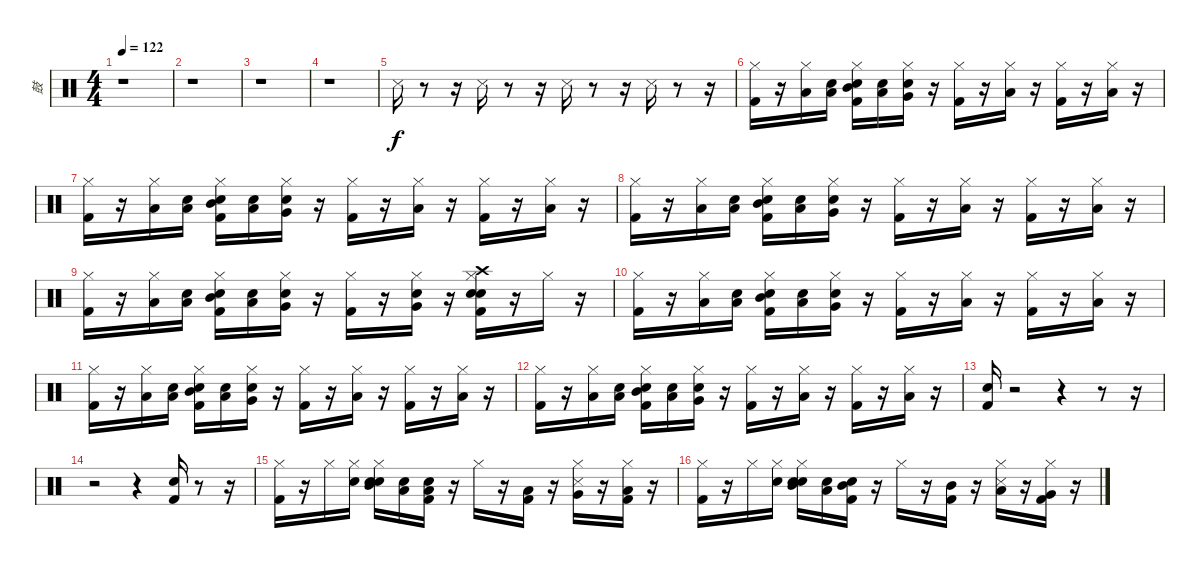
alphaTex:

\track ("鼓" "鼓") {instrument percussion}
\staff {score}
\articulation defaults
\ts (4 4)
\tempo 122
\clef neutral
\ks c
r.1{dy f} |
r.1 |
r.1 |
r.1 |
"Snare (side stick) 3".16 r.8 r.16 "Snare (side stick) 3".16 r.8 r.16 "Snare (side stick) 3".16 r.8 r.16 "Snare (side stick) 3".16 r.8 r.16 |
("Hi-Hat (closed)" "Kick (hit) 2").16 r.16 ("Hi-Hat (closed)" "Low Floor Tom (hit)").16 ("Snare (hit)" "Low Floor Tom (hit)").16 ("Snare (hit)" "Mid Tom (hit)" "Hi-Hat (closed)" "Kick (hit) 2").16 ("Snare (hit)" "Low Tom (hit)").16 ("Snare (hit)" "Very Low Tom (hit)" "Hi-Hat (closed)").16 r.16 ("Hi-Hat (closed)" "Kick (hit) 2").16 r.16 ("Hi-Hat (closed)" "Low Tom (hit)").16 r.16 ("Hi-Hat (closed)" "Kick (hit) 2").16 r.16 ("Hi-Hat (closed)" "Low Floor Tom (hit)").16 r.16 |
("Hi-Hat (closed)" "Kick (hit) 2").16 r.16 ("Hi-Hat (closed)" "Low Floor Tom (hit)").16 ("Snare (hit)" "Low Floor Tom (hit)").16 ("Snare (hit)" "Mid Tom (hit)" "Hi-Hat (closed)" "Kick (hit) 2").16 ("Snare (hit)" "Low Tom (hit)").16 ("Snare (hit)" "Very Low Tom (hit)" "Hi-Hat (closed)").16 r.16 ("Hi-Hat (closed)" "Kick (hit) 2").16 r.16 ("Hi-Hat (closed)" "Low Tom (hit)").16 r.16 ("Hi-Hat (closed)" "Kick (hit) 2").16 r.16 ("Hi-Hat (closed)" "Low Floor Tom (hit)").16 r.16 |
("Hi-Hat (closed)" "Kick (hit) 2").16 r.16 ("Hi-Hat (closed)" "Low Floor Tom (hit)").16 ("Snare (hit)" "Low Floor Tom (hit)").16 ("Snare (hit)" "Mid Tom (hit)" "Hi-Hat (closed)" "Kick (hit) 2").16 ("Snare (hit)" "Low Tom (hit)").16 ("Snare (hit)" "Very Low Tom (hit)" "Hi-Hat (closed)").16 r.16 ("Hi-Hat (closed)" "Kick (hit) 2").16 r.16 ("Hi-Hat (closed)" "Low Tom (hit)").16 r.16 ("Hi-Hat (closed)" "Kick (hit) 2").16 r.16 ("Hi-Hat (closed)" "Low Floor Tom (hit)").16 r.16 |
("Hi-Hat (closed)" "Kick (hit) 2").16 r.16 ("Hi-Hat (closed)" "Low Floor Tom (hit)").16 ("Snare (hit)" "Low Floor Tom (hit)").16 ("Snare (hit)" "Mid Tom (hit)" "Hi-Hat (closed)" "Kick (hit) 2").16 ("Snare (hit)" "Low Tom (hit)").16 ("Snare (hit)" "Very Low Tom (hit)" "Hi-Hat (closed)").16 r.16 ("Hi-Hat (closed)" "Kick (hit) 2").16 r.16 ("Very Low Tom (hit)" "Electric Snare (hit)" "Hi-Hat (closed)").16 r.16 ("Crash high (hit)" "Electric Snare (hit)" "Snare (hit) 2" "Hi-Hat (closed)" "Kick (hit) 2").16 r.16 "Hi-Hat (closed)".16 r.16 |
("Hi-Hat (closed)" "Kick (hit) 2").16 r.16 ("Hi-Hat (closed)" "Low Floor Tom (hit)").16 ("Snare (hit)" "Low Floor Tom (hit)").16 ("Snare (hit)" "Mid Tom (hit)" "Hi-Hat (closed)" "Kick (hit) 2").16 ("Snare (hit)" "Low Tom (hit)").16 ("Snare (hit)" "Very Low Tom (hit)" "Hi-Hat (closed)").16 r.16 ("Hi-Hat (closed)" "Kick (hit) 2").16 r.16 ("Hi-Hat (closed)" "Low Tom (hit)").16 r.16 ("Hi-Hat (closed)" "Kick (hit) 2").16 r.16 ("Hi-Hat (closed)" "Low Floor Tom (hit)").16 r.16 |
("Hi-Hat (closed)" "Kick (hit) 2").16 r.16 ("Hi-Hat (closed)" "Low Floor Tom (hit)").16 ("Snare (hit)" "Low Floor Tom (hit)").16 ("Snare (hit)" "Mid Tom (hit)" "Hi-Hat (closed)" "Kick (hit) 2").16 ("Snare (hit)" "Low Tom (hit)").16 ("Snare (hit)" "Very Low Tom (hit)" "Hi-Hat (closed)").16 r.16 ("Hi-Hat (closed)" "Kick (hit) 2").16 r.16 ("Hi-Hat (closed)" "Low Tom (hit)").16 r.16 ("Hi-Hat (closed)" "Kick (hit) 2").16 r.16 ("Hi-Hat (closed)" "Low Floor Tom (hit)").16 r.16 |
("Hi-Hat (closed)" "Kick (hit) 2").16 r.16 ("Hi-Hat (closed)" "Low Floor Tom (hit)").16 ("Snare (hit)" "Low Floor Tom (hit)").16 ("Snare (hit)" "Mid Tom (hit)" "Hi-Hat (closed)" "Kick (hit) 2").16 ("Snare (hit)" "Low Tom (hit)").16 ("Snare (hit)" "Very Low Tom (hit)" "Hi-Hat (closed)").16 r.16 ("Hi-Hat (closed)" "Kick (hit) 2").16 r.16 ("Hi-Hat (closed)" "Low Tom (hit)").16 r.16 ("Hi-Hat (closed)" "Kick (hit) 2").16 r.16 ("Hi-Hat (closed)" "Low Floor Tom (hit)").16 r.16 |
("Kick (hit) 2" "Electric Snare (hit)").16 r.2 r.4 r.8 r.16 |
r.2 r.4 ("Snare (hit) 2" "Kick (hit) 2").16 r.8 r.16 |
("Kick (hit) 2" "Hi-Hat (closed)").16 r.16 "Hi-Hat (closed)".16 ("Snare (hit)" "Hi-Hat (closed)").16 ("Snare (hit)" "Snare (hit) 2" "Mid Tom (hit)" "Hi-Hat (closed)").16 ("Snare (hit)" "Low Tom (hit)").16 ("Snare (hit)" "Low Tom (hit)" "Kick (hit) 2").16 r.16 "Hi-Hat (closed)".16 r.16 ("Kick (hit) 2" "Low Tom (hit)").16 r.16 ("Very Low Tom (hit)" "Hi-Hat (closed)" "Snare (side stick) 3").16 r.16 ("Kick (hit) 2" "Low Floor Tom (hit)" "Hi-Hat (closed)").16 r.16 |
("Kick (hit) 2" "Hi-Hat (closed)").16 r.16 "Hi-Hat (closed)".16 ("Snare (hit)" "Hi-Hat (closed)").16 ("Snare (hit)" "Snare (hit) 2" "Hi-Hat (closed)" "Mid Tom (hit)").16 ("Snare (hit)" "Low Tom (hit)").16 ("Snare (hit)" "Kick (hit) 2" "Mid Tom (hit)").16 r.16 "Hi-Hat (closed)".16 r.16 ("Kick (hit) 2" "Mid Tom (hit)").16 r.16 ("Hi-Hat (closed)" "Low Tom (hit)" "Snare (side stick) 3").16 r.16 ("Kick (hit) 2" "Very Low Tom (hit)" "Hi-Hat (closed)").16 r.16
